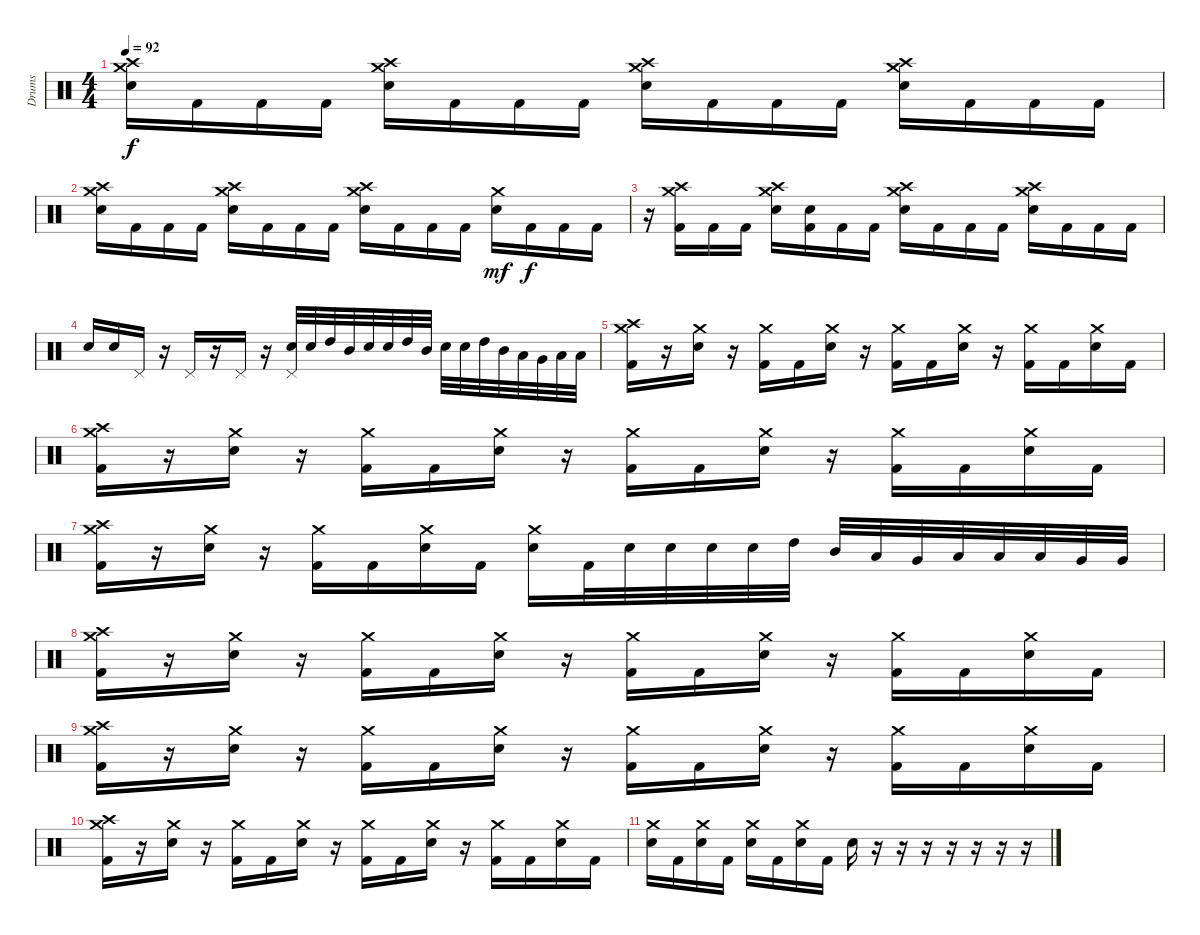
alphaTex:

\track ("Drums" "Drums") {instrument percussion}
\staff {score}
\articulation defaults
\ts (4 4)
\tempo 92
\clef neutral
\ks c
("Crash high (hit)" "Crash medium (hit)" "Electric Snare (hit)").16{dy f} "Kick (hit) 2".16 "Kick (hit) 2".16 "Kick (hit) 2".16 ("Crash high (hit)" "Crash medium (hit)" "Electric Snare (hit)").16 "Kick (hit) 2".16 "Kick (hit) 2".16 "Kick (hit) 2".16 ("Crash high (hit)" "Crash medium (hit)" "Electric Snare (hit)").16 "Kick (hit) 2".16 "Kick (hit) 2".16 "Kick (hit) 2".16 ("Crash high (hit)" "Crash medium (hit)" "Electric Snare (hit)").16 "Kick (hit) 2".16 "Kick (hit) 2".16 "Kick (hit) 2".16 |
("Crash high (hit)" "Crash medium (hit)" "Electric Snare (hit)").16 "Kick (hit) 2".16 "Kick (hit) 2".16 "Kick (hit) 2".16 ("Crash high (hit)" "Crash medium (hit)" "Electric Snare (hit)").16 "Kick (hit) 2".16 "Kick (hit) 2".16 "Kick (hit) 2".16 ("Crash high (hit)" "Crash medium (hit)" "Electric Snare (hit)").16 "Kick (hit) 2".16 "Kick (hit) 2".16 "Kick (hit) 2".16 ("Crash medium (hit)" "Electric Snare (hit)").16{dy mf} "Kick (hit) 2".16{dy f} "Kick (hit) 2".16 "Kick (hit) 2".16 |
r.16 ("Crash medium (hit)" "Crash high (hit)" "Kick (hit) 2").16 "Kick (hit) 2".16 "Kick (hit) 2".16 ("Crash medium (hit)" "Crash high (hit)" "Electric Snare (hit)").16 ("Snare (hit)" "Kick (hit) 2").16 "Kick (hit) 2".16 "Kick (hit) 2".16 ("Crash medium (hit)" "Crash high (hit)" "Electric Snare (hit)").16 "Kick (hit) 2".16 "Kick (hit) 2".16 "Kick (hit) 2".16 ("Crash medium (hit)" "Crash high (hit)" "Electric Snare (hit)").16 "Kick (hit) 2".16 "Kick (hit) 2".16 "Kick (hit) 2".16 |
"Electric Snare (hit)".16 "Electric Snare (hit)".16 "Pedal Hi-Hat (hit)".16 r.16 "Pedal Hi-Hat (hit)".16 r.16 "Pedal Hi-Hat (hit)".16 r.16 ("Pedal Hi-Hat (hit)" "Electric Snare (hit)").32 "Electric Snare (hit)".32 "High Tom (hit)".32 "Mid Tom (hit)".32 "Electric Snare (hit)".32 "Electric Snare (hit)".32 "High Tom (hit)".32 "Mid Tom (hit)".32 "Electric Snare (hit)".32 "Electric Snare (hit)".32 "High Tom (hit)".32 "Mid Tom (hit)".32 "Low Tom (hit)".32 "Very Low Tom (hit)".32 "Low Floor Tom (hit)".32 "Low Floor Tom (hit)".32 |
("Crash high (hit)" "Crash medium (hit)" "Kick (hit) 2").16 r.16 ("Crash medium (hit)" "Electric Snare (hit)").16 r.16 ("Crash medium (hit)" "Kick (hit) 2").16 "Kick (hit) 2".16 ("Crash medium (hit)" "Electric Snare (hit)").16 r.16 ("Crash medium (hit)" "Kick (hit) 2").16 "Kick (hit) 2".16 ("Crash medium (hit)" "Electric Snare (hit)").16 r.16 ("Crash medium (hit)" "Kick (hit) 2").16 "Kick (hit) 2".16 ("Crash medium (hit)" "Electric Snare (hit)").16 "Kick (hit) 2".16 |
("Crash high (hit)" "Crash medium (hit)" "Kick (hit) 2").16 r.16 ("Crash medium (hit)" "Electric Snare (hit)").16 r.16 ("Crash medium (hit)" "Kick (hit) 2").16 "Kick (hit) 2".16 ("Crash medium (hit)" "Electric Snare (hit)").16 r.16 ("Crash medium (hit)" "Kick (hit) 2").16 "Kick (hit) 2".16 ("Crash medium (hit)" "Electric Snare (hit)").16 r.16 ("Crash medium (hit)" "Kick (hit) 2").16 "Kick (hit) 2".16 ("Crash medium (hit)" "Electric Snare (hit)").16 "Kick (hit) 2".16 |
("Crash high (hit)" "Crash medium (hit)" "Kick (hit) 2").16 r.16 ("Crash medium (hit)" "Electric Snare (hit)").16 r.16 ("Crash medium (hit)" "Kick (hit) 2").16 "Kick (hit) 2".16 ("Crash medium (hit)" "Electric Snare (hit)").16 "Kick (hit) 2".16 ("Crash medium (hit)" "Electric Snare (hit)").16 "Kick (hit) 2".32 "Electric Snare (hit)".32 "Electric Snare (hit)".32 "Electric Snare (hit)".32 "Electric Snare (hit)".32 "High Tom (hit)".32 "Mid Tom (hit)".32 "Low Tom (hit)".32 "Very Low Tom (hit)".32 "Low Floor Tom (hit)".32 "Low Floor Tom (hit)".32 "Low Floor Tom (hit)".32 "Very Low Tom (hit)".32 "Very Low Tom (hit)".32 |
("Crash high (hit)" "Crash medium (hit)" "Kick (hit) 2").16 r.16 ("Crash medium (hit)" "Electric Snare (hit)").16 r.16 ("Crash medium (hit)" "Kick (hit) 2").16 "Kick (hit) 2".16 ("Crash medium (hit)" "Electric Snare (hit)").16 r.16 ("Crash medium (hit)" "Kick (hit) 2").16 "Kick (hit) 2".16 ("Crash medium (hit)" "Electric Snare (hit)").16 r.16 ("Crash medium (hit)" "Kick (hit) 2").16 "Kick (hit) 2".16 ("Crash medium (hit)" "Electric Snare (hit)").16 "Kick (hit) 2".16 |
("Crash high (hit)" "Crash medium (hit)" "Kick (hit) 2").16 r.16 ("Crash medium (hit)" "Electric Snare (hit)").16 r.16 ("Crash medium (hit)" "Kick (hit) 2").16 "Kick (hit) 2".16 ("Crash medium (hit)" "Electric Snare (hit)").16 r.16 ("Crash medium (hit)" "Kick (hit) 2").16 "Kick (hit) 2".16 ("Crash medium (hit)" "Electric Snare (hit)").16 r.16 ("Crash medium (hit)" "Kick (hit) 2").16 "Kick (hit) 2".16 ("Crash medium (hit)" "Electric Snare (hit)").16 "Kick (hit) 2".16 |
("Crash high (hit)" "Crash medium (hit)" "Kick (hit) 2").16 r.16 ("Crash medium (hit)" "Electric Snare (hit)").16 r.16 ("Crash medium (hit)" "Kick (hit) 2").16 "Kick (hit) 2".16 ("Crash medium (hit)" "Electric Snare (hit)").16 r.16 ("Crash medium (hit)" "Kick (hit) 2").16 "Kick (hit) 2".16 ("Crash medium (hit)" "Electric Snare (hit)").16 r.16 ("Crash medium (hit)" "Kick (hit) 2").16 "Kick (hit) 2".16 ("Crash medium (hit)" "Electric Snare (hit)").16 "Kick (hit) 2".16 |
("Crash medium (hit)" "Electric Snare (hit)").16 "Kick (hit) 2".16 ("Crash medium (hit)" "Electric Snare (hit)").16 "Kick (hit) 2".16 ("Crash medium (hit)" "Electric Snare (hit)").16 "Kick (hit) 2".16 ("Crash medium (hit)" "Electric Snare (hit)").16 "Kick (hit) 2".16 "Electric Snare (hit)".16 r.16 r.16 r.16 r.16 r.16 r.16 r.16
